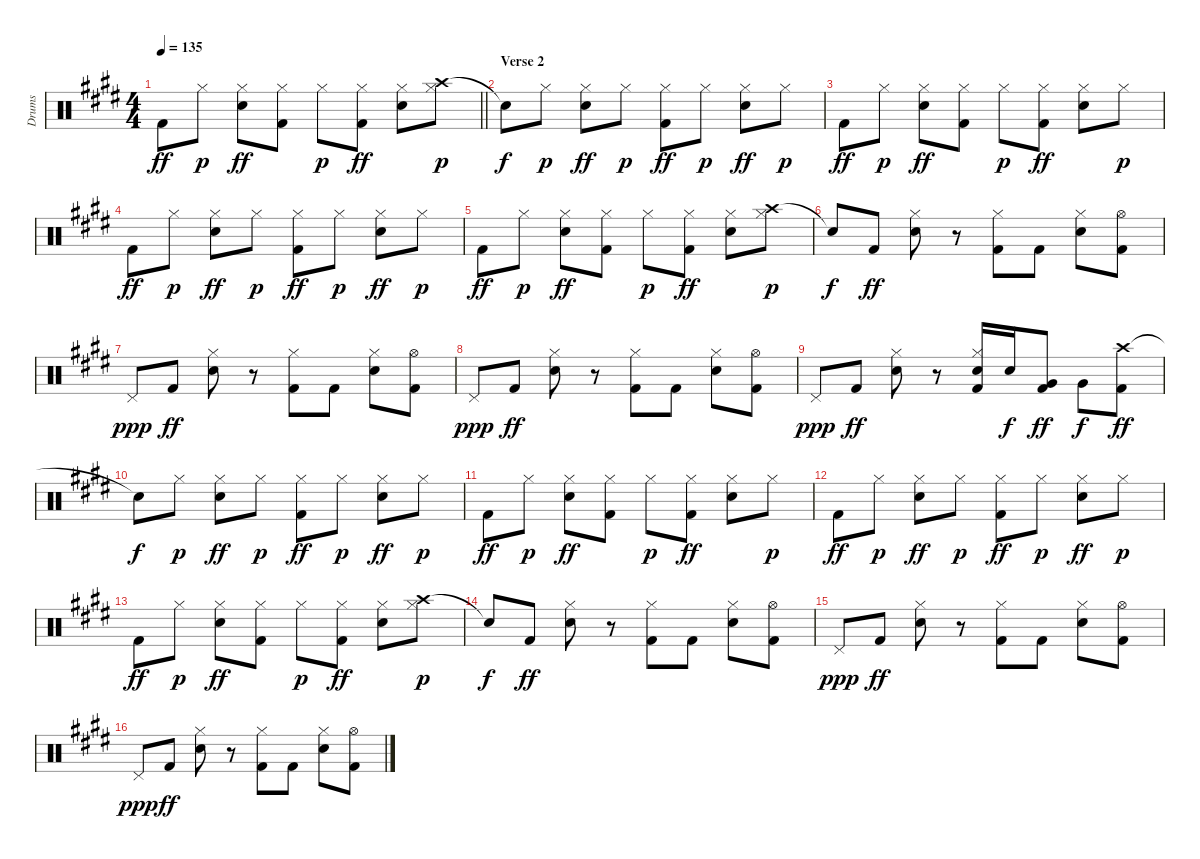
\track ("Drums" "Drums") {instrument percussion}
\staff {score}
\articulation defaults
\ts (4 4)
\tempo 135
\clef neutral
\barLineRight lightlight
\ks e "Kick (hit) 2".8{dy ff} "Hi-Hat (closed)".8{dy p}
("Hi-Hat (closed)" "Snare (hit) 2").8{dy ff} ("Hi-Hat (closed)" "Kick (hit) 2").8 "Hi-Hat (closed)".8{dy p} ("Hi-Hat (closed)" "Kick (hit) 2").8{dy ff} ("Hi-Hat (closed)" "Snare (hit) 2").8 ("Crash high (hit)" "Hi-Hat (closed)").8{dy p} |
\section ("" "Verse 2")
"Snare (hit)"{t}.8{dy f} "Hi-Hat (closed)".8{dy p} ("Hi-Hat (closed)" "Snare (hit) 2").8{dy ff} "Hi-Hat (closed)".8{dy p} ("Hi-Hat (closed)" "Kick (hit) 2").8{dy ff} "Hi-Hat (closed)".8{dy p} ("Hi-Hat (closed)" "Snare (hit) 2").8{dy ff} "Hi-Hat (closed)".8{dy p} |
"Kick (hit) 2".8{dy ff} "Hi-Hat (closed)".8{dy p} ("Hi-Hat (closed)" "Snare (hit) 2").8{dy ff} ("Hi-Hat (closed)" "Kick (hit) 2").8 "Hi-Hat (closed)".8{dy p} ("Hi-Hat (closed)" "Kick (hit) 2").8{dy ff} ("Hi-Hat (closed)" "Snare (hit) 2").8 "Hi-Hat (closed)".8{dy p} |
"Kick (hit) 2".8{dy ff} "Hi-Hat (closed)".8{dy p} ("Hi-Hat (closed)" "Snare (hit) 2").8{dy ff} "Hi-Hat (closed)".8{dy p} ("Hi-Hat (closed)" "Kick (hit) 2").8{dy ff} "Hi-Hat (closed)".8{dy p} ("Hi-Hat (closed)" "Snare (hit) 2").8{dy ff} "Hi-Hat (closed)".8{dy p} |
"Kick (hit) 2".8{dy ff} "Hi-Hat (closed)".8{dy p} ("Hi-Hat (closed)" "Snare (hit) 2").8{dy ff} ("Hi-Hat (closed)" "Kick (hit) 2").8 "Hi-Hat (closed)".8{dy p} ("Hi-Hat (closed)" "Kick (hit) 2").8{dy ff} ("Hi-Hat (closed)" "Snare (hit) 2").8 ("Crash high (hit)" "Hi-Hat (closed)").8{dy p} |
"Snare (hit)"{t}.8{dy f} "Kick (hit) 2".8{dy ff} ("Hi-Hat (closed)" "Snare (hit) 2").8 r.8 ("Hi-Hat (closed)" "Kick (hit) 2").8 "Kick (hit) 2".8 ("Hi-Hat (closed)" "Snare (hit) 2").8 ("Hi-Hat (open)" "Kick (hit) 2").8 |
"Pedal Hi-Hat (hit)".8{dy ppp} "Kick (hit) 2".8{dy ff} ("Hi-Hat (closed)" "Snare (hit) 2").8 r.8 ("Hi-Hat (closed)" "Kick (hit) 2").8 "Kick (hit) 2".8 ("Hi-Hat (closed)" "Snare (hit) 2").8 ("Hi-Hat (open)" "Kick (hit) 2").8 |
"Pedal Hi-Hat (hit)".8{dy ppp} "Kick (hit) 2".8{dy ff} ("Hi-Hat (closed)" "Snare (hit) 2").8 r.8 ("Hi-Hat (closed)" "Kick (hit) 2").8 "Kick (hit) 2".8 ("Hi-Hat (closed)" "Snare (hit) 2").8 ("Hi-Hat (open)" "Kick (hit) 2").8 |
"Pedal Hi-Hat (hit)".8{dy ppp} "Kick (hit) 2".8{dy ff} ("Hi-Hat (closed)" "Snare (hit) 2").8 r.8 ("Hi-Hat (closed)" "Snare (hit) 2" "Kick (hit) 2").16 "Snare (hit) 2".16{dy f} ("Very Low Tom (hit)" "Kick (hit) 2").8{dy ff} "Very Low Tom (hit)".8{dy f} ("Crash high (hit)" "Kick (hit) 2").8{dy ff} |
"Snare (hit)"{t}.8{dy f} "Hi-Hat (closed)".8{dy p} ("Hi-Hat (closed)" "Snare (hit) 2").8{dy ff} "Hi-Hat (closed)".8{dy p} ("Hi-Hat (closed)" "Kick (hit) 2").8{dy ff} "Hi-Hat (closed)".8{dy p} ("Hi-Hat (closed)" "Snare (hit) 2").8{dy ff} "Hi-Hat (closed)".8{dy p} |
"Kick (hit) 2".8{dy ff} "Hi-Hat (closed)".8{dy p} ("Hi-Hat (closed)" "Snare (hit) 2").8{dy ff} ("Hi-Hat (closed)" "Kick (hit) 2").8 "Hi-Hat (closed)".8{dy p} ("Hi-Hat (closed)" "Kick (hit) 2").8{dy ff} ("Hi-Hat (closed)" "Snare (hit) 2").8 "Hi-Hat (closed)".8{dy p} |
"Kick (hit) 2".8{dy ff} "Hi-Hat (closed)".8{dy p} ("Hi-Hat (closed)" "Snare (hit) 2").8{dy ff} "Hi-Hat (closed)".8{dy p} ("Hi-Hat (closed)" "Kick (hit) 2").8{dy ff} "Hi-Hat (closed)".8{dy p} ("Hi-Hat (closed)" "Snare (hit) 2").8{dy ff} "Hi-Hat (closed)".8{dy p} |
"Kick (hit) 2".8{dy ff} "Hi-Hat (closed)".8{dy p} ("Hi-Hat (closed)" "Snare (hit) 2").8{dy ff} ("Hi-Hat (closed)" "Kick (hit) 2").8 "Hi-Hat (closed)".8{dy p} ("Hi-Hat (closed)" "Kick (hit) 2").8{dy ff} ("Hi-Hat (closed)" "Snare (hit) 2").8 ("Crash high (hit)" "Hi-Hat (closed)").8{dy p} |
"Snare (hit)"{t}.8{dy f} "Kick (hit) 2".8{dy ff} ("Hi-Hat (closed)" "Snare (hit) 2").8 r.8 ("Hi-Hat (closed)" "Kick (hit) 2").8 "Kick (hit) 2".8 ("Hi-Hat (closed)" "Snare (hit) 2").8 ("Hi-Hat (open)" "Kick (hit) 2").8 |
"Pedal Hi-Hat (hit)".8{dy ppp} "Kick (hit) 2".8{dy ff} ("Hi-Hat (closed)" "Snare (hit) 2").8 r.8 ("Hi-Hat (closed)" "Kick (hit) 2").8 "Kick (hit) 2".8 ("Hi-Hat (closed)" "Snare (hit) 2").8 ("Hi-Hat (open)" "Kick (hit) 2").8 |
"Pedal Hi-Hat (hit)".8{dy ppp} "Kick (hit) 2".8{dy ff} ("Hi-Hat (closed)" "Snare (hit) 2").8 r.8 ("Hi-Hat (closed)" "Kick (hit) 2").8 "Kick (hit) 2".8 ("Hi-Hat (closed)" "Snare (hit) 2").8 ("Hi-Hat (open)" "Kick (hit) 2").8
